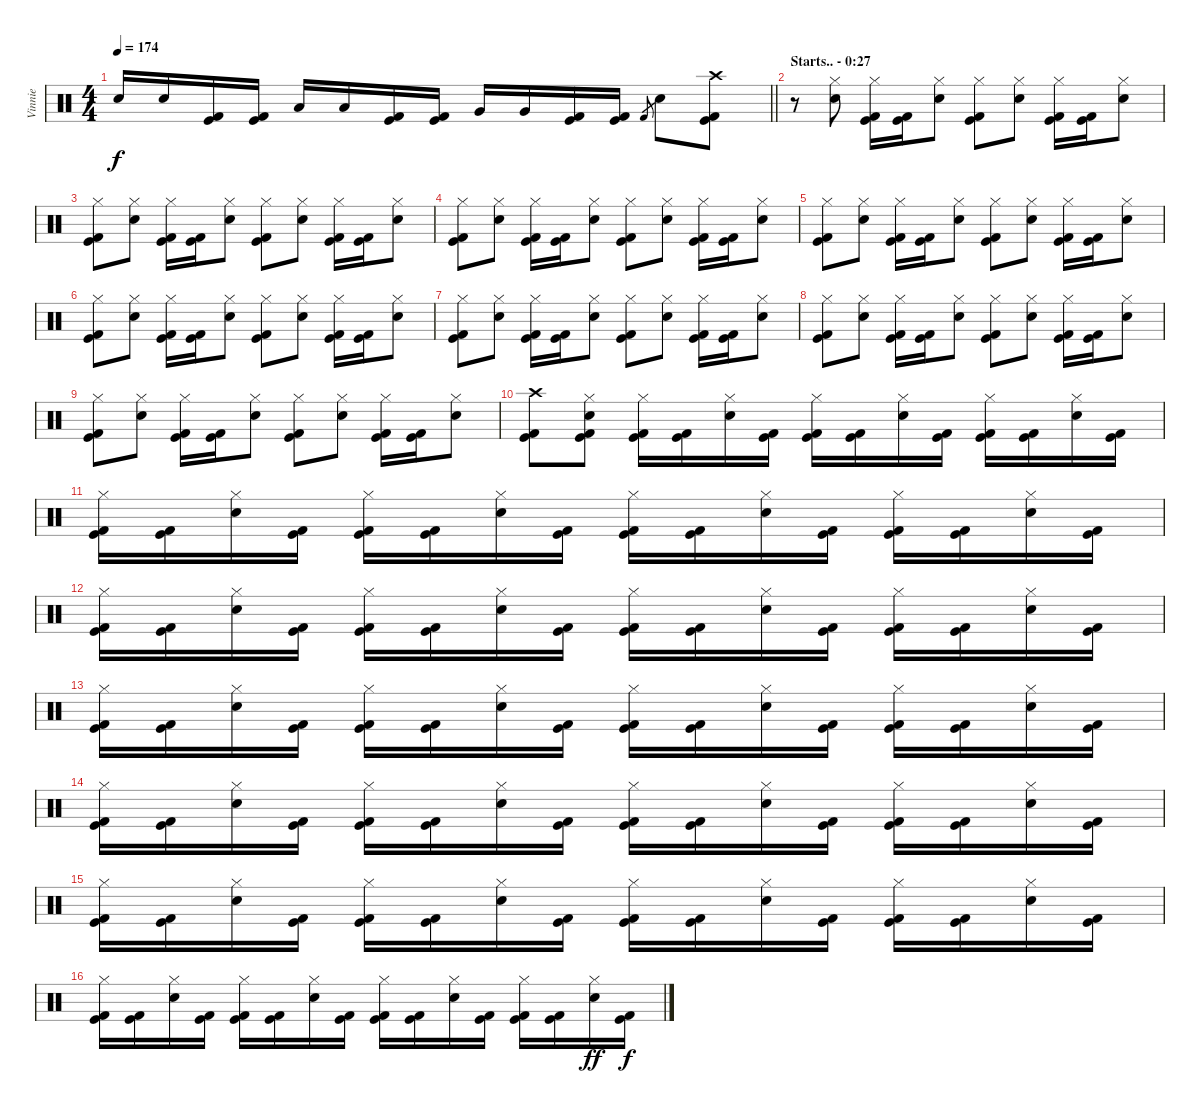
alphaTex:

\track ("Vinnie" "Vinnie") {instrument percussion}
\staff {score}
\articulation defaults
\ts (4 4)
\tempo 174
\clef neutral
\barLineRight lightlight
\ks c "Electric Snare (hit)".16{dy f} "Electric Snare (hit)".16
("Kick (hit)" "Kick (hit) 2").16 ("Kick (hit)" "Kick (hit) 2").16 "Low Tom (hit)".16 "Low Tom (hit)".16 ("Kick (hit)" "Kick (hit) 2").16 ("Kick (hit)" "Kick (hit) 2").16 "Very Low Tom (hit)".16 "Very Low Tom (hit)".16 ("Kick (hit)" "Kick (hit) 2").16 ("Kick (hit)" "Kick (hit) 2").16 "Kick (hit) 2".8{gr} "Electric Snare (hit)".8 ("Crash high (hit)" "Kick (hit)" "Kick (hit) 2").8 |
\section ("" "Starts.. - 0:27")
r.8 ("Hi-Hat (closed)" "Electric Snare (hit)").8 ("Hi-Hat (closed)" "Kick (hit)" "Kick (hit) 2").16 ("Kick (hit)" "Kick (hit) 2").16 ("Hi-Hat (closed)" "Electric Snare (hit)").8 ("Hi-Hat (closed)" "Kick (hit)" "Kick (hit) 2").8 ("Hi-Hat (closed)" "Electric Snare (hit)").8 ("Hi-Hat (closed)" "Kick (hit)" "Kick (hit) 2").16 ("Kick (hit)" "Kick (hit) 2").16 ("Hi-Hat (closed)" "Electric Snare (hit)").8 |
("Hi-Hat (closed)" "Kick (hit)" "Kick (hit) 2").8 ("Hi-Hat (closed)" "Electric Snare (hit)").8 ("Hi-Hat (closed)" "Kick (hit)" "Kick (hit) 2").16 ("Kick (hit)" "Kick (hit) 2").16 ("Hi-Hat (closed)" "Electric Snare (hit)").8 ("Hi-Hat (closed)" "Kick (hit)" "Kick (hit) 2").8 ("Hi-Hat (closed)" "Electric Snare (hit)").8 ("Hi-Hat (closed)" "Kick (hit)" "Kick (hit) 2").16 ("Kick (hit)" "Kick (hit) 2").16 ("Hi-Hat (closed)" "Electric Snare (hit)").8 |
("Hi-Hat (closed)" "Kick (hit)" "Kick (hit) 2").8 ("Hi-Hat (closed)" "Electric Snare (hit)").8 ("Hi-Hat (closed)" "Kick (hit)" "Kick (hit) 2").16 ("Kick (hit)" "Kick (hit) 2").16 ("Hi-Hat (closed)" "Electric Snare (hit)").8 ("Hi-Hat (closed)" "Kick (hit)" "Kick (hit) 2").8 ("Hi-Hat (closed)" "Electric Snare (hit)").8 ("Hi-Hat (closed)" "Kick (hit)" "Kick (hit) 2").16 ("Kick (hit)" "Kick (hit) 2").16 ("Hi-Hat (closed)" "Electric Snare (hit)").8 |
("Hi-Hat (closed)" "Kick (hit)" "Kick (hit) 2").8 ("Hi-Hat (closed)" "Electric Snare (hit)").8 ("Hi-Hat (closed)" "Kick (hit)" "Kick (hit) 2").16 ("Kick (hit)" "Kick (hit) 2").16 ("Hi-Hat (closed)" "Electric Snare (hit)").8 ("Hi-Hat (closed)" "Kick (hit)" "Kick (hit) 2").8 ("Hi-Hat (closed)" "Electric Snare (hit)").8 ("Hi-Hat (closed)" "Kick (hit)" "Kick (hit) 2").16 ("Kick (hit)" "Kick (hit) 2").16 ("Hi-Hat (closed)" "Electric Snare (hit)").8 |
("Hi-Hat (closed)" "Kick (hit)" "Kick (hit) 2").8 ("Hi-Hat (closed)" "Electric Snare (hit)").8 ("Hi-Hat (closed)" "Kick (hit)" "Kick (hit) 2").16 ("Kick (hit)" "Kick (hit) 2").16 ("Hi-Hat (closed)" "Electric Snare (hit)").8 ("Hi-Hat (closed)" "Kick (hit)" "Kick (hit) 2").8 ("Hi-Hat (closed)" "Electric Snare (hit)").8 ("Hi-Hat (closed)" "Kick (hit)" "Kick (hit) 2").16 ("Kick (hit)" "Kick (hit) 2").16 ("Hi-Hat (closed)" "Electric Snare (hit)").8 |
("Hi-Hat (closed)" "Kick (hit)" "Kick (hit) 2").8 ("Hi-Hat (closed)" "Electric Snare (hit)").8 ("Hi-Hat (closed)" "Kick (hit)" "Kick (hit) 2").16 ("Kick (hit)" "Kick (hit) 2").16 ("Hi-Hat (closed)" "Electric Snare (hit)").8 ("Hi-Hat (closed)" "Kick (hit)" "Kick (hit) 2").8 ("Hi-Hat (closed)" "Electric Snare (hit)").8 ("Hi-Hat (closed)" "Kick (hit)" "Kick (hit) 2").16 ("Kick (hit)" "Kick (hit) 2").16 ("Hi-Hat (closed)" "Electric Snare (hit)").8 |
("Hi-Hat (closed)" "Kick (hit)" "Kick (hit) 2").8 ("Hi-Hat (closed)" "Electric Snare (hit)").8 ("Hi-Hat (closed)" "Kick (hit)" "Kick (hit) 2").16 ("Kick (hit)" "Kick (hit) 2").16 ("Hi-Hat (closed)" "Electric Snare (hit)").8 ("Hi-Hat (closed)" "Kick (hit)" "Kick (hit) 2").8 ("Hi-Hat (closed)" "Electric Snare (hit)").8 ("Hi-Hat (closed)" "Kick (hit)" "Kick (hit) 2").16 ("Kick (hit)" "Kick (hit) 2").16 ("Hi-Hat (closed)" "Electric Snare (hit)").8 |
("Hi-Hat (closed)" "Kick (hit)" "Kick (hit) 2").8 ("Hi-Hat (closed)" "Electric Snare (hit)").8 ("Hi-Hat (closed)" "Kick (hit)" "Kick (hit) 2").16 ("Kick (hit)" "Kick (hit) 2").16 ("Hi-Hat (closed)" "Electric Snare (hit)").8 ("Hi-Hat (closed)" "Kick (hit)" "Kick (hit) 2").8 ("Hi-Hat (closed)" "Electric Snare (hit)").8 ("Hi-Hat (closed)" "Kick (hit)" "Kick (hit) 2").16 ("Kick (hit)" "Kick (hit) 2").16 ("Hi-Hat (closed)" "Electric Snare (hit)").8 |
("Crash high (hit)" "Kick (hit)" "Kick (hit) 2").8 ("Hi-Hat (closed)" "Electric Snare (hit)" "Kick (hit)" "Kick (hit) 2").8 ("Hi-Hat (closed)" "Kick (hit)" "Kick (hit) 2").16 ("Kick (hit)" "Kick (hit) 2").16 ("Hi-Hat (closed)" "Electric Snare (hit)").16 ("Kick (hit)" "Kick (hit) 2").16 ("Hi-Hat (closed)" "Kick (hit)" "Kick (hit) 2").16 ("Kick (hit)" "Kick (hit) 2").16 ("Hi-Hat (closed)" "Electric Snare (hit)").16 ("Kick (hit)" "Kick (hit) 2").16 ("Hi-Hat (closed)" "Kick (hit)" "Kick (hit) 2").16 ("Kick (hit)" "Kick (hit) 2").16 ("Hi-Hat (closed)" "Electric Snare (hit)").16 ("Kick (hit)" "Kick (hit) 2").16 |
("Hi-Hat (closed)" "Kick (hit)" "Kick (hit) 2").16 ("Kick (hit)" "Kick (hit) 2").16 ("Hi-Hat (closed)" "Electric Snare (hit)").16 ("Kick (hit)" "Kick (hit) 2").16 ("Hi-Hat (closed)" "Kick (hit)" "Kick (hit) 2").16 ("Kick (hit)" "Kick (hit) 2").16 ("Hi-Hat (closed)" "Electric Snare (hit)").16 ("Kick (hit)" "Kick (hit) 2").16 ("Hi-Hat (closed)" "Kick (hit)" "Kick (hit) 2").16 ("Kick (hit)" "Kick (hit) 2").16 ("Hi-Hat (closed)" "Electric Snare (hit)").16 ("Kick (hit)" "Kick (hit) 2").16 ("Hi-Hat (closed)" "Kick (hit)" "Kick (hit) 2").16 ("Kick (hit)" "Kick (hit) 2").16 ("Hi-Hat (closed)" "Electric Snare (hit)").16 ("Kick (hit)" "Kick (hit) 2").16 |
("Hi-Hat (closed)" "Kick (hit)" "Kick (hit) 2").16 ("Kick (hit)" "Kick (hit) 2").16 ("Hi-Hat (closed)" "Electric Snare (hit)").16 ("Kick (hit)" "Kick (hit) 2").16 ("Hi-Hat (closed)" "Kick (hit)" "Kick (hit) 2").16 ("Kick (hit)" "Kick (hit) 2").16 ("Hi-Hat (closed)" "Electric Snare (hit)").16 ("Kick (hit)" "Kick (hit) 2").16 ("Hi-Hat (closed)" "Kick (hit)" "Kick (hit) 2").16 ("Kick (hit)" "Kick (hit) 2").16 ("Hi-Hat (closed)" "Electric Snare (hit)").16 ("Kick (hit)" "Kick (hit) 2").16 ("Hi-Hat (closed)" "Kick (hit)" "Kick (hit) 2").16 ("Kick (hit)" "Kick (hit) 2").16 ("Hi-Hat (closed)" "Electric Snare (hit)").16 ("Kick (hit)" "Kick (hit) 2").16 |
("Hi-Hat (closed)" "Kick (hit)" "Kick (hit) 2").16 ("Kick (hit)" "Kick (hit) 2").16 ("Hi-Hat (closed)" "Electric Snare (hit)").16 ("Kick (hit)" "Kick (hit) 2").16 ("Hi-Hat (closed)" "Kick (hit)" "Kick (hit) 2").16 ("Kick (hit)" "Kick (hit) 2").16 ("Hi-Hat (closed)" "Electric Snare (hit)").16 ("Kick (hit)" "Kick (hit) 2").16 ("Hi-Hat (closed)" "Kick (hit)" "Kick (hit) 2").16 ("Kick (hit)" "Kick (hit) 2").16 ("Hi-Hat (closed)" "Electric Snare (hit)").16 ("Kick (hit)" "Kick (hit) 2").16 ("Hi-Hat (closed)" "Kick (hit)" "Kick (hit) 2").16 ("Kick (hit)" "Kick (hit) 2").16 ("Hi-Hat (closed)" "Electric Snare (hit)").16 ("Kick (hit)" "Kick (hit) 2").16 |
("Hi-Hat (closed)" "Kick (hit)" "Kick (hit) 2").16 ("Kick (hit)" "Kick (hit) 2").16 ("Hi-Hat (closed)" "Electric Snare (hit)").16 ("Kick (hit)" "Kick (hit) 2").16 ("Hi-Hat (closed)" "Kick (hit)" "Kick (hit) 2").16 ("Kick (hit)" "Kick (hit) 2").16 ("Hi-Hat (closed)" "Electric Snare (hit)").16 ("Kick (hit)" "Kick (hit) 2").16 ("Hi-Hat (closed)" "Kick (hit)" "Kick (hit) 2").16 ("Kick (hit)" "Kick (hit) 2").16 ("Hi-Hat (closed)" "Electric Snare (hit)").16 ("Kick (hit)" "Kick (hit) 2").16 ("Hi-Hat (closed)" "Kick (hit)" "Kick (hit) 2").16 ("Kick (hit)" "Kick (hit) 2").16 ("Hi-Hat (closed)" "Electric Snare (hit)").16 ("Kick (hit)" "Kick (hit) 2").16 |
("Hi-Hat (closed)" "Kick (hit)" "Kick (hit) 2").16 ("Kick (hit)" "Kick (hit) 2").16 ("Hi-Hat (closed)" "Electric Snare (hit)").16 ("Kick (hit)" "Kick (hit) 2").16 ("Hi-Hat (closed)" "Kick (hit)" "Kick (hit) 2").16 ("Kick (hit)" "Kick (hit) 2").16 ("Hi-Hat (closed)" "Electric Snare (hit)").16 ("Kick (hit)" "Kick (hit) 2").16 ("Hi-Hat (closed)" "Kick (hit)" "Kick (hit) 2").16 ("Kick (hit)" "Kick (hit) 2").16 ("Hi-Hat (closed)" "Electric Snare (hit)").16 ("Kick (hit)" "Kick (hit) 2").16 ("Hi-Hat (closed)" "Kick (hit)" "Kick (hit) 2").16 ("Kick (hit)" "Kick (hit) 2").16 ("Hi-Hat (closed)" "Electric Snare (hit)").16 ("Kick (hit)" "Kick (hit) 2").16 |
("Hi-Hat (closed)" "Kick (hit)" "Kick (hit) 2").16 ("Kick (hit)" "Kick (hit) 2").16 ("Hi-Hat (closed)" "Electric Snare (hit)").16 ("Kick (hit)" "Kick (hit) 2").16 ("Hi-Hat (closed)" "Kick (hit)" "Kick (hit) 2").16 ("Kick (hit)" "Kick (hit) 2").16 ("Hi-Hat (closed)" "Electric Snare (hit)").16 ("Kick (hit)" "Kick (hit) 2").16 ("Hi-Hat (closed)" "Kick (hit)" "Kick (hit) 2").16 ("Kick (hit)" "Kick (hit) 2").16 ("Hi-Hat (closed)" "Electric Snare (hit)").16 ("Kick (hit)" "Kick (hit) 2").16 ("Hi-Hat (closed)" "Kick (hit)" "Kick (hit) 2").16 ("Kick (hit)" "Kick (hit) 2").16 ("Hi-Hat (closed)" "Electric Snare (hit)").16{dy ff} ("Kick (hit)" "Kick (hit) 2").16{dy f}
